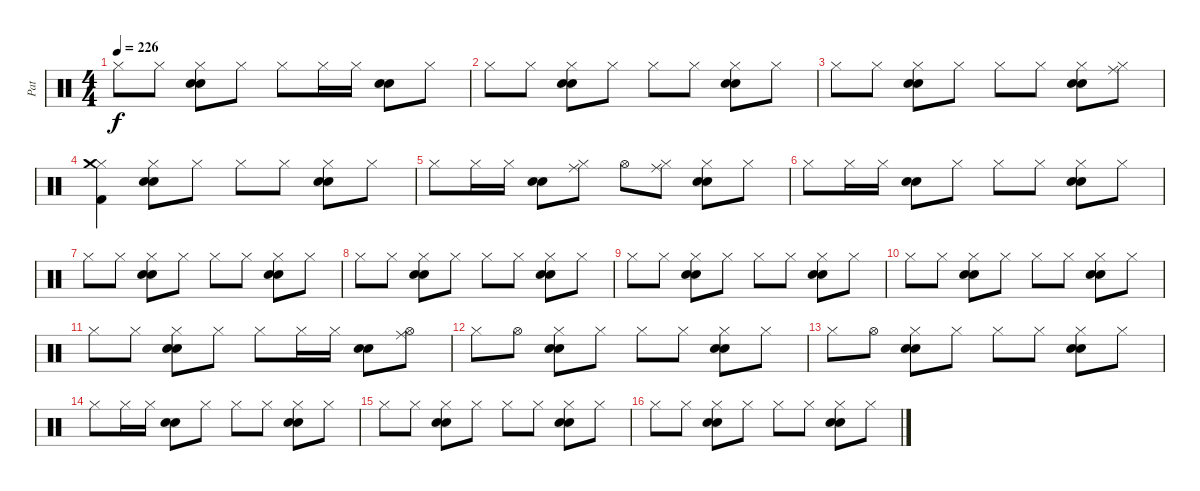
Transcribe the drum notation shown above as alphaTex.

\track ("Pat" "Pat") {instrument percussion}
\staff {score}
\articulation defaults
\ts (4 4)
\tempo 226
\clef neutral
\ks c "Hi-Hat (closed)".8{dy f} "Hi-Hat (closed)".8
("Hi-Hat (closed)" "Snare (hit) 2" "Electric Snare (hit)").8 "Hi-Hat (closed)".8 "Hi-Hat (closed)".8 "Hi-Hat (closed)".16 "Hi-Hat (closed)".16 ("Snare (hit) 2" "Electric Snare (hit)").8 "Hi-Hat (closed)".8 |
"Hi-Hat (closed)".8 "Hi-Hat (closed)".8 ("Hi-Hat (closed)" "Snare (hit) 2" "Electric Snare (hit)").8 "Hi-Hat (closed)".8 "Hi-Hat (closed)".8 "Hi-Hat (closed)".8 ("Hi-Hat (closed)" "Snare (hit) 2" "Electric Snare (hit)").8 "Hi-Hat (closed)".8 |
"Hi-Hat (closed)".8 "Hi-Hat (closed)".8 ("Hi-Hat (closed)" "Snare (hit) 2" "Electric Snare (hit)").8 "Hi-Hat (closed)".8 "Hi-Hat (closed)".8 "Hi-Hat (closed)".8 ("Hi-Hat (closed)" "Snare (hit) 2" "Electric Snare (hit)").8 ("Hi-Hat (closed)" "Ride (middle)").8 |
("Hi-Hat (closed)" "Crash medium (hit)" "Kick (hit) 2").4 ("Hi-Hat (closed)" "Snare (hit) 2" "Electric Snare (hit)").8 "Hi-Hat (closed)".8 "Hi-Hat (closed)".8 "Hi-Hat (closed)".8 ("Hi-Hat (closed)" "Snare (hit) 2" "Electric Snare (hit)").8 "Hi-Hat (closed)".8 |
"Hi-Hat (closed)".8 "Hi-Hat (closed)".16 "Hi-Hat (closed)".16 ("Snare (hit) 2" "Electric Snare (hit)").8 ("Hi-Hat (closed)" "Ride (middle)").8 "Hi-Hat (open)".8 ("Hi-Hat (closed)" "Ride (middle)").8 ("Hi-Hat (closed)" "Snare (hit) 2" "Electric Snare (hit)").8 "Hi-Hat (closed)".8 |
"Hi-Hat (closed)".8 "Hi-Hat (closed)".16 "Hi-Hat (closed)".16 ("Snare (hit) 2" "Electric Snare (hit)").8 "Hi-Hat (closed)".8 "Hi-Hat (closed)".8 "Hi-Hat (closed)".8 ("Hi-Hat (closed)" "Snare (hit) 2" "Electric Snare (hit)").8 "Hi-Hat (closed)".8 |
"Hi-Hat (closed)".8 "Hi-Hat (closed)".8 ("Hi-Hat (closed)" "Snare (hit) 2" "Electric Snare (hit)").8 "Hi-Hat (closed)".8 "Hi-Hat (closed)".8 "Hi-Hat (closed)".8 ("Hi-Hat (closed)" "Snare (hit) 2" "Electric Snare (hit)").8 "Hi-Hat (closed)".8 |
"Hi-Hat (closed)".8 "Hi-Hat (closed)".8 ("Hi-Hat (closed)" "Snare (hit) 2" "Electric Snare (hit)").8 "Hi-Hat (closed)".8 "Hi-Hat (closed)".8 "Hi-Hat (closed)".8 ("Hi-Hat (closed)" "Snare (hit) 2" "Electric Snare (hit)").8 "Hi-Hat (closed)".8 |
"Hi-Hat (closed)".8 "Hi-Hat (closed)".8 ("Hi-Hat (closed)" "Snare (hit) 2" "Electric Snare (hit)").8 "Hi-Hat (closed)".8 "Hi-Hat (closed)".8 "Hi-Hat (closed)".8 ("Hi-Hat (closed)" "Snare (hit) 2" "Electric Snare (hit)").8 "Hi-Hat (closed)".8 |
"Hi-Hat (closed)".8 "Hi-Hat (closed)".8 ("Hi-Hat (closed)" "Snare (hit) 2" "Electric Snare (hit)").8 "Hi-Hat (closed)".8 "Hi-Hat (closed)".8 "Hi-Hat (closed)".8 ("Hi-Hat (closed)" "Snare (hit) 2" "Electric Snare (hit)").8 "Hi-Hat (closed)".8 |
"Hi-Hat (closed)".8 "Hi-Hat (closed)".8 ("Hi-Hat (closed)" "Snare (hit) 2" "Electric Snare (hit)").8 "Hi-Hat (closed)".8 "Hi-Hat (closed)".8 "Hi-Hat (closed)".16 "Hi-Hat (closed)".16 ("Snare (hit) 2" "Electric Snare (hit)").8 ("Hi-Hat (open)" "Ride (middle)").8 |
"Hi-Hat (closed)".8 "Hi-Hat (open)".8 ("Hi-Hat (closed)" "Snare (hit) 2" "Electric Snare (hit)").8 "Hi-Hat (closed)".8 "Hi-Hat (closed)".8 "Hi-Hat (closed)".8 ("Hi-Hat (closed)" "Snare (hit) 2" "Electric Snare (hit)").8 "Hi-Hat (closed)".8 |
"Hi-Hat (closed)".8 "Hi-Hat (open)".8 ("Hi-Hat (closed)" "Snare (hit) 2" "Electric Snare (hit)").8 "Hi-Hat (closed)".8 "Hi-Hat (closed)".8 "Hi-Hat (closed)".8 ("Hi-Hat (closed)" "Snare (hit) 2" "Electric Snare (hit)").8 "Hi-Hat (closed)".8 |
"Hi-Hat (closed)".8 "Hi-Hat (closed)".16 "Hi-Hat (closed)".16 ("Snare (hit) 2" "Electric Snare (hit)").8 "Hi-Hat (closed)".8 "Hi-Hat (closed)".8 "Hi-Hat (closed)".8 ("Hi-Hat (closed)" "Snare (hit) 2" "Electric Snare (hit)").8 "Hi-Hat (closed)".8 |
"Hi-Hat (closed)".8 "Hi-Hat (closed)".8 ("Hi-Hat (closed)" "Snare (hit) 2" "Electric Snare (hit)").8 "Hi-Hat (closed)".8 "Hi-Hat (closed)".8 "Hi-Hat (closed)".8 ("Hi-Hat (closed)" "Snare (hit) 2" "Electric Snare (hit)").8 "Hi-Hat (closed)".8 |
"Hi-Hat (closed)".8 "Hi-Hat (closed)".8 ("Hi-Hat (closed)" "Snare (hit) 2" "Electric Snare (hit)").8 "Hi-Hat (closed)".8 "Hi-Hat (closed)".8 "Hi-Hat (closed)".8 ("Hi-Hat (closed)" "Snare (hit) 2" "Electric Snare (hit)").8 "Hi-Hat (closed)".8
